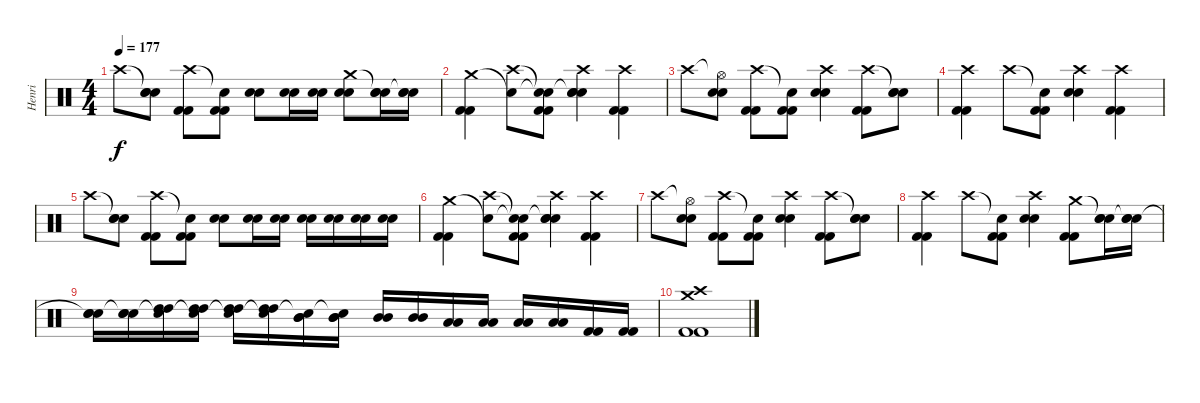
\track ("Henri" "Henri") {instrument percussion}
\staff {score}
\articulation defaults
\ts (4 4)
\tempo 177
\clef neutral
\ks c "Crash high (hit)".8{dy f}
("Snare (hit)"{t} "Snare (hit) 2" "Snare (hit) 2").8 ("Crash high (hit)" "Kick (hit) 2" "Kick (hit) 2").8 ("Snare (hit)"{t} "Kick (hit) 2" "Kick (hit) 2").8 ("Snare (hit) 2" "Snare (hit) 2").8 ("Snare (hit) 2" "Snare (hit) 2").16 ("Snare (hit) 2" "Snare (hit) 2").16 ("Crash medium (hit)" "Snare (hit) 2" "Snare (hit) 2").8 ("Snare (hit)"{t} "Snare (hit) 2" "Snare (hit) 2").16 ("Snare (hit)"{t} "Snare (hit) 2" "Snare (hit) 2").16 |
("Crash medium (hit)" "Kick (hit) 2" "Kick (hit) 2").4 ("Snare (hit)"{t} "Crash high (hit)").8 ("Snare (hit)"{t} "Snare (hit)"{t} "Kick (hit) 2" "Kick (hit) 2").8 ("Snare (hit)"{t} "Crash high (hit)" "Snare (hit) 2" "Snare (hit) 2").4 ("Crash high (hit)" "Kick (hit) 2" "Kick (hit) 2").4 |
"Crash high (hit)".8 ("Hi-Hat (open)"{t} "Snare (hit) 2" "Snare (hit) 2").8 ("Crash high (hit)" "Kick (hit) 2" "Kick (hit) 2").8 ("Snare (hit)"{t} "Kick (hit) 2" "Kick (hit) 2").8 ("Crash high (hit)" "Snare (hit) 2" "Snare (hit) 2").4 ("Crash high (hit)" "Kick (hit) 2" "Kick (hit) 2").8 ("Snare (hit)"{t} "Snare (hit) 2" "Snare (hit) 2").8 |
("Crash high (hit)" "Kick (hit) 2" "Kick (hit) 2").4 "Crash high (hit)".8 ("Snare (hit)"{t} "Kick (hit) 2" "Kick (hit) 2").8 ("Crash high (hit)" "Snare (hit) 2" "Snare (hit) 2").4 ("Crash high (hit)" "Kick (hit) 2" "Kick (hit) 2").4 |
"Crash high (hit)".8 ("Snare (hit)"{t} "Snare (hit) 2" "Snare (hit) 2").8 ("Crash high (hit)" "Kick (hit) 2" "Kick (hit) 2").8 ("Snare (hit)"{t} "Kick (hit) 2" "Kick (hit) 2").8 ("Snare (hit) 2" "Snare (hit) 2").8 ("Snare (hit) 2" "Snare (hit) 2").16 ("Snare (hit) 2" "Snare (hit) 2").16 ("Snare (hit) 2" "Snare (hit) 2").16 ("Snare (hit) 2" "Snare (hit) 2").16 ("Snare (hit) 2" "Snare (hit) 2").16 ("Snare (hit) 2" "Snare (hit) 2").16 |
("Crash medium (hit)" "Kick (hit) 2" "Kick (hit) 2").4 ("Snare (hit)"{t} "Crash high (hit)").8 ("Snare (hit)"{t} "Snare (hit)"{t} "Kick (hit) 2" "Kick (hit) 2").8 ("Snare (hit)"{t} "Crash high (hit)" "Snare (hit) 2" "Snare (hit) 2").4 ("Crash high (hit)" "Kick (hit) 2" "Kick (hit) 2").4 |
"Crash high (hit)".8 ("Hi-Hat (open)"{t} "Snare (hit) 2" "Snare (hit) 2").8 ("Crash high (hit)" "Kick (hit) 2" "Kick (hit) 2").8 ("Snare (hit)"{t} "Kick (hit) 2" "Kick (hit) 2").8 ("Crash high (hit)" "Snare (hit) 2" "Snare (hit) 2").4 ("Crash high (hit)" "Kick (hit) 2" "Kick (hit) 2").8 ("Snare (hit)"{t} "Snare (hit) 2" "Snare (hit) 2").8 |
("Crash high (hit)" "Kick (hit) 2" "Kick (hit) 2").4 "Crash high (hit)".8 ("Snare (hit)"{t} "Kick (hit) 2" "Kick (hit) 2").8 ("Crash high (hit)" "Snare (hit) 2" "Snare (hit) 2").4 ("Crash medium (hit)" "Kick (hit) 2" "Kick (hit) 2").8 ("Snare (hit)"{t} "Snare (hit) 2" "Snare (hit) 2").16 ("Snare (hit)"{t} "Snare (hit) 2" "Snare (hit) 2").16 |
("Snare (hit)"{t} "Snare (hit) 2" "Snare (hit) 2").16 ("Snare (hit)"{t} "Snare (hit) 2" "Snare (hit) 2").16 ("Snare (hit)"{t} "High Tom (hit)" "High Tom (hit)").16 ("Snare (hit)"{t} "High Tom (hit)" "High Tom (hit)").16 ("Snare (hit)"{t} "High Tom (hit)" "High Tom (hit)").16 ("Snare (hit)"{t} "High Tom (hit)" "High Tom (hit)").16 ("Snare (hit)"{t} "Mid Tom (hit)" "Mid Tom (hit)").16 ("Snare (hit)"{t} "Mid Tom (hit)" "Mid Tom (hit)").16 ("Mid Tom (hit)" "Mid Tom (hit)").16 ("Mid Tom (hit)" "Mid Tom (hit)").16 ("Low Tom (hit)" "Low Tom (hit)").16 ("Low Tom (hit)" "Low Tom (hit)").16 ("Low Tom (hit)" "Low Tom (hit)").16 ("Low Tom (hit)" "Low Tom (hit)").16 ("Kick (hit) 2" "Kick (hit) 2").16 ("Kick (hit) 2" "Kick (hit) 2").16 |
("Crash medium (hit)" "Crash high (hit)" "Kick (hit) 2" "Kick (hit) 2").1
